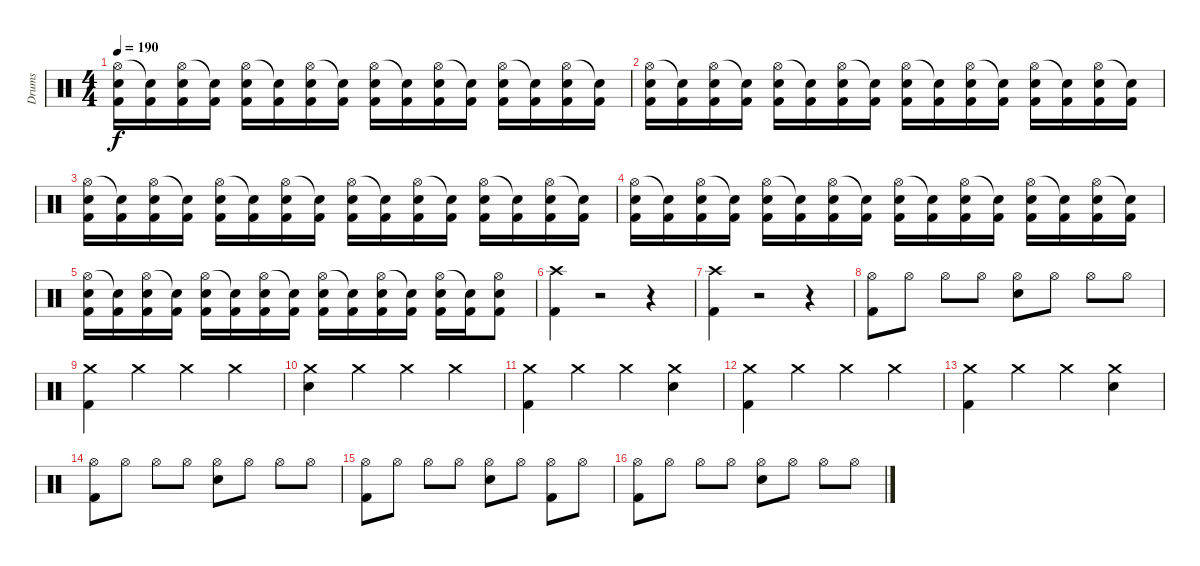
\track ("Drums" "Drums") {instrument percussion}
\staff {score}
\articulation defaults
\ts (4 4)
\tempo 190
\clef neutral
\ks c
("Hi-Hat (open)" "Electric Snare (hit)" "Kick (hit) 2").16{dy f} ("Snare (hit)"{t} "Kick (hit) 2").16 ("Hi-Hat (open)" "Electric Snare (hit)" "Kick (hit) 2").16 ("Snare (hit)"{t} "Kick (hit) 2").16 ("Hi-Hat (open)" "Electric Snare (hit)" "Kick (hit) 2").16 ("Snare (hit)"{t} "Kick (hit) 2").16 ("Hi-Hat (open)" "Electric Snare (hit)" "Kick (hit) 2").16 ("Snare (hit)"{t} "Kick (hit) 2").16 ("Hi-Hat (open)" "Electric Snare (hit)" "Kick (hit) 2").16 ("Snare (hit)"{t} "Kick (hit) 2").16 ("Hi-Hat (open)" "Electric Snare (hit)" "Kick (hit) 2").16 ("Snare (hit)"{t} "Kick (hit) 2").16 ("Hi-Hat (open)" "Electric Snare (hit)" "Kick (hit) 2").16 ("Snare (hit)"{t} "Kick (hit) 2").16 ("Hi-Hat (open)" "Electric Snare (hit)" "Kick (hit) 2").16 ("Snare (hit)"{t} "Kick (hit) 2").16 |
("Hi-Hat (open)" "Electric Snare (hit)" "Kick (hit) 2").16 ("Snare (hit)"{t} "Kick (hit) 2").16 ("Hi-Hat (open)" "Electric Snare (hit)" "Kick (hit) 2").16 ("Snare (hit)"{t} "Kick (hit) 2").16 ("Hi-Hat (open)" "Electric Snare (hit)" "Kick (hit) 2").16 ("Snare (hit)"{t} "Kick (hit) 2").16 ("Hi-Hat (open)" "Electric Snare (hit)" "Kick (hit) 2").16 ("Snare (hit)"{t} "Kick (hit) 2").16 ("Hi-Hat (open)" "Electric Snare (hit)" "Kick (hit) 2").16 ("Snare (hit)"{t} "Kick (hit) 2").16 ("Hi-Hat (open)" "Electric Snare (hit)" "Kick (hit) 2").16 ("Snare (hit)"{t} "Kick (hit) 2").16 ("Hi-Hat (open)" "Electric Snare (hit)" "Kick (hit) 2").16 ("Snare (hit)"{t} "Kick (hit) 2").16 ("Hi-Hat (open)" "Electric Snare (hit)" "Kick (hit) 2").16 ("Snare (hit)"{t} "Kick (hit) 2").16 |
("Hi-Hat (open)" "Electric Snare (hit)" "Kick (hit) 2").16 ("Snare (hit)"{t} "Kick (hit) 2").16 ("Hi-Hat (open)" "Electric Snare (hit)" "Kick (hit) 2").16 ("Snare (hit)"{t} "Kick (hit) 2").16 ("Hi-Hat (open)" "Electric Snare (hit)" "Kick (hit) 2").16 ("Snare (hit)"{t} "Kick (hit) 2").16 ("Hi-Hat (open)" "Electric Snare (hit)" "Kick (hit) 2").16 ("Snare (hit)"{t} "Kick (hit) 2").16 ("Hi-Hat (open)" "Electric Snare (hit)" "Kick (hit) 2").16 ("Snare (hit)"{t} "Kick (hit) 2").16 ("Hi-Hat (open)" "Electric Snare (hit)" "Kick (hit) 2").16 ("Snare (hit)"{t} "Kick (hit) 2").16 ("Hi-Hat (open)" "Electric Snare (hit)" "Kick (hit) 2").16 ("Snare (hit)"{t} "Kick (hit) 2").16 ("Hi-Hat (open)" "Electric Snare (hit)" "Kick (hit) 2").16 ("Snare (hit)"{t} "Kick (hit) 2").16 |
("Hi-Hat (open)" "Electric Snare (hit)" "Kick (hit) 2").16 ("Snare (hit)"{t} "Kick (hit) 2").16 ("Hi-Hat (open)" "Electric Snare (hit)" "Kick (hit) 2").16 ("Snare (hit)"{t} "Kick (hit) 2").16 ("Hi-Hat (open)" "Electric Snare (hit)" "Kick (hit) 2").16 ("Snare (hit)"{t} "Kick (hit) 2").16 ("Hi-Hat (open)" "Electric Snare (hit)" "Kick (hit) 2").16 ("Snare (hit)"{t} "Kick (hit) 2").16 ("Hi-Hat (open)" "Electric Snare (hit)" "Kick (hit) 2").16 ("Snare (hit)"{t} "Kick (hit) 2").16 ("Hi-Hat (open)" "Electric Snare (hit)" "Kick (hit) 2").16 ("Snare (hit)"{t} "Kick (hit) 2").16 ("Hi-Hat (open)" "Electric Snare (hit)" "Kick (hit) 2").16 ("Snare (hit)"{t} "Kick (hit) 2").16 ("Hi-Hat (open)" "Electric Snare (hit)" "Kick (hit) 2").16 ("Snare (hit)"{t} "Kick (hit) 2").16 |
("Hi-Hat (open)" "Electric Snare (hit)" "Kick (hit) 2").16 ("Snare (hit)"{t} "Kick (hit) 2").16 ("Hi-Hat (open)" "Electric Snare (hit)" "Kick (hit) 2").16 ("Snare (hit)"{t} "Kick (hit) 2").16 ("Hi-Hat (open)" "Electric Snare (hit)" "Kick (hit) 2").16 ("Snare (hit)"{t} "Kick (hit) 2").16 ("Hi-Hat (open)" "Electric Snare (hit)" "Kick (hit) 2").16 ("Snare (hit)"{t} "Kick (hit) 2").16 ("Hi-Hat (open)" "Electric Snare (hit)" "Kick (hit) 2").16 ("Snare (hit)"{t} "Kick (hit) 2").16 ("Hi-Hat (open)" "Electric Snare (hit)" "Kick (hit) 2").16 ("Snare (hit)"{t} "Kick (hit) 2").16 ("Hi-Hat (open)" "Electric Snare (hit)" "Kick (hit) 2").16 ("Snare (hit)"{t} "Kick (hit) 2").16 ("Hi-Hat (open)" "Electric Snare (hit)" "Kick (hit) 2").8 |
("Crash high (hit)" "Kick (hit) 2").4 r.2 r.4 |
("Crash high (hit)" "Kick (hit) 2").4 r.2 r.4 |
("Hi-Hat (open)" "Kick (hit) 2").8 "Hi-Hat (open)".8 "Hi-Hat (open)".8 "Hi-Hat (open)".8 ("Hi-Hat (open)" "Electric Snare (hit)").8 "Hi-Hat (open)".8 "Hi-Hat (open)".8 "Hi-Hat (open)".8 |
("Crash medium (hit)" "Kick (hit) 2").4 "Crash medium (hit)".4 "Crash medium (hit)".4 "Crash medium (hit)".4 |
("Crash medium (hit)" "Electric Snare (hit)").4 "Crash medium (hit)".4 "Crash medium (hit)".4 "Crash medium (hit)".4 |
("Crash medium (hit)" "Kick (hit) 2").4 "Crash medium (hit)".4 "Crash medium (hit)".4 ("Crash medium (hit)" "Electric Snare (hit)").4 |
("Crash medium (hit)" "Kick (hit) 2").4 "Crash medium (hit)".4 "Crash medium (hit)".4 "Crash medium (hit)".4 |
("Crash medium (hit)" "Kick (hit) 2").4 "Crash medium (hit)".4 "Crash medium (hit)".4 ("Crash medium (hit)" "Electric Snare (hit)").4 |
("Hi-Hat (open)" "Kick (hit) 2").8 "Hi-Hat (open)".8 "Hi-Hat (open)".8 "Hi-Hat (open)".8 ("Hi-Hat (open)" "Electric Snare (hit)").8 "Hi-Hat (open)".8 "Hi-Hat (open)".8 "Hi-Hat (open)".8 |
("Hi-Hat (open)" "Kick (hit) 2").8 "Hi-Hat (open)".8 "Hi-Hat (open)".8 "Hi-Hat (open)".8 ("Hi-Hat (open)" "Electric Snare (hit)").8 "Hi-Hat (open)".8 ("Hi-Hat (open)" "Kick (hit) 2").8 "Hi-Hat (open)".8 |
("Hi-Hat (open)" "Kick (hit) 2").8 "Hi-Hat (open)".8 "Hi-Hat (open)".8 "Hi-Hat (open)".8 ("Hi-Hat (open)" "Electric Snare (hit)").8 "Hi-Hat (open)".8 "Hi-Hat (open)".8 "Hi-Hat (open)".8
